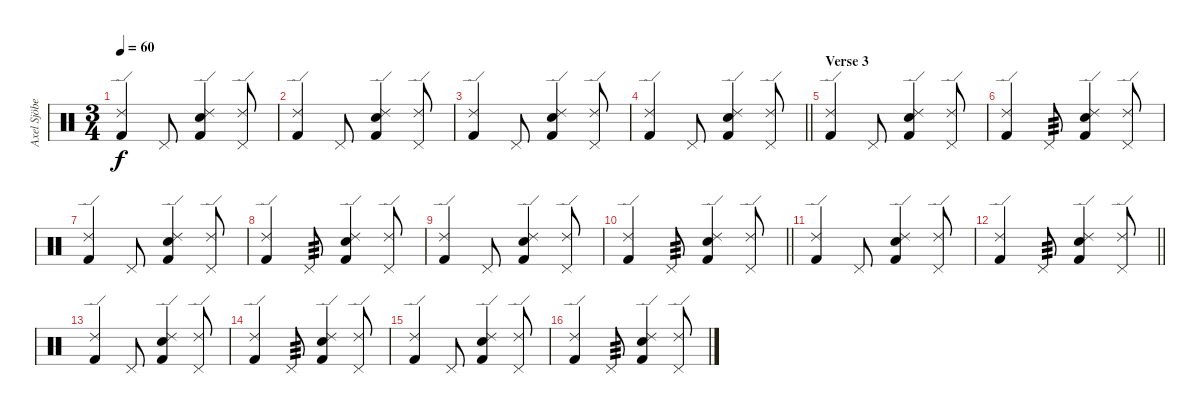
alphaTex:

\track ("Axel Sjöberg " "Axel Sjöbe") {instrument percussion}
\staff {score}
\articulation defaults
\ts (3 4)
\tempo 60
\clef neutral
\ks c
("Kick (hit) 2" "Ride (edge) 2").4{dy f} "Pedal Hi-Hat (hit)".8 ("Kick (hit) 2" "Snare (hit) 2" "Ride (edge) 2").4 ("Ride (edge) 2" "Pedal Hi-Hat (hit)").8 |
("Kick (hit) 2" "Ride (edge) 2").4 "Pedal Hi-Hat (hit)".8 ("Kick (hit) 2" "Snare (hit) 2" "Ride (edge) 2").4 ("Ride (edge) 2" "Pedal Hi-Hat (hit)").8 |
("Kick (hit) 2" "Ride (edge) 2").4 "Pedal Hi-Hat (hit)".8 ("Kick (hit) 2" "Snare (hit) 2" "Ride (edge) 2").4 ("Ride (edge) 2" "Pedal Hi-Hat (hit)").8 |
\barLineRight lightlight
("Kick (hit) 2" "Ride (edge) 2").4 "Pedal Hi-Hat (hit)".8 ("Kick (hit) 2" "Snare (hit) 2" "Ride (edge) 2").4 ("Ride (edge) 2" "Pedal Hi-Hat (hit)").8 |
\section ("" "Verse 3")
("Kick (hit) 2" "Ride (edge) 2").4 "Pedal Hi-Hat (hit)".8 ("Kick (hit) 2" "Snare (hit) 2" "Ride (edge) 2").4 ("Ride (edge) 2" "Pedal Hi-Hat (hit)").8 |
("Kick (hit) 2" "Ride (edge) 2").4 "Pedal Hi-Hat (hit)".8{tp 3} ("Kick (hit) 2" "Snare (hit) 2" "Ride (edge) 2").4 ("Ride (edge) 2" "Pedal Hi-Hat (hit)").8 |
("Kick (hit) 2" "Ride (edge) 2").4 "Pedal Hi-Hat (hit)".8 ("Kick (hit) 2" "Snare (hit) 2" "Ride (edge) 2").4 ("Ride (edge) 2" "Pedal Hi-Hat (hit)").8 |
("Kick (hit) 2" "Ride (edge) 2").4 "Pedal Hi-Hat (hit)".8{tp 3} ("Kick (hit) 2" "Snare (hit) 2" "Ride (edge) 2").4 ("Ride (edge) 2" "Pedal Hi-Hat (hit)").8 |
("Kick (hit) 2" "Ride (edge) 2").4 "Pedal Hi-Hat (hit)".8 ("Kick (hit) 2" "Snare (hit) 2" "Ride (edge) 2").4 ("Ride (edge) 2" "Pedal Hi-Hat (hit)").8 |
\barLineRight lightlight
("Kick (hit) 2" "Ride (edge) 2").4 "Pedal Hi-Hat (hit)".8{tp 3} ("Kick (hit) 2" "Snare (hit) 2" "Ride (edge) 2").4 ("Ride (edge) 2" "Pedal Hi-Hat (hit)").8 |
("Kick (hit) 2" "Ride (edge) 2").4 "Pedal Hi-Hat (hit)".8 ("Kick (hit) 2" "Snare (hit) 2" "Ride (edge) 2").4 ("Ride (edge) 2" "Pedal Hi-Hat (hit)").8 |
\barLineRight lightlight
("Kick (hit) 2" "Ride (edge) 2").4 "Pedal Hi-Hat (hit)".8{tp 3} ("Kick (hit) 2" "Snare (hit) 2" "Ride (edge) 2").4 ("Ride (edge) 2" "Pedal Hi-Hat (hit)").8 |
("Kick (hit) 2" "Ride (edge) 2").4 "Pedal Hi-Hat (hit)".8 ("Kick (hit) 2" "Snare (hit) 2" "Ride (edge) 2").4 ("Ride (edge) 2" "Pedal Hi-Hat (hit)").8 |
("Kick (hit) 2" "Ride (edge) 2").4 "Pedal Hi-Hat (hit)".8{tp 3} ("Kick (hit) 2" "Snare (hit) 2" "Ride (edge) 2").4 ("Ride (edge) 2" "Pedal Hi-Hat (hit)").8 |
("Kick (hit) 2" "Ride (edge) 2").4 "Pedal Hi-Hat (hit)".8 ("Kick (hit) 2" "Snare (hit) 2" "Ride (edge) 2").4 ("Ride (edge) 2" "Pedal Hi-Hat (hit)").8 |
("Kick (hit) 2" "Ride (edge) 2").4 "Pedal Hi-Hat (hit)".8{tp 3} ("Kick (hit) 2" "Snare (hit) 2" "Ride (edge) 2").4 ("Ride (edge) 2" "Pedal Hi-Hat (hit)").8
